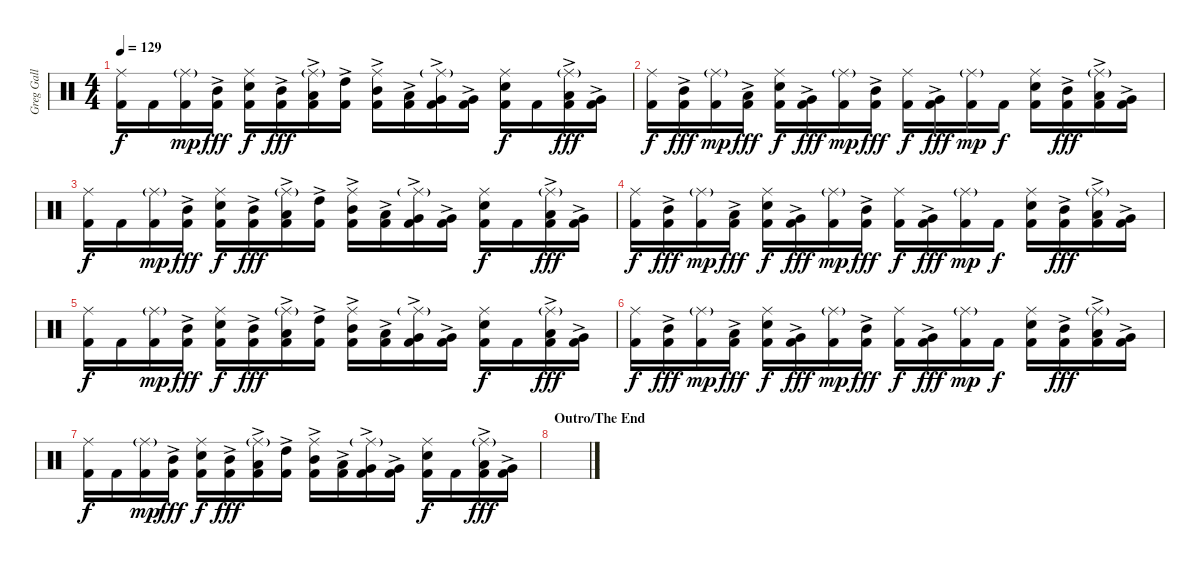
\track ("Greg Gall (Drums)" "Greg Gall ") {instrument percussion}
\staff {score}
\articulation defaults
\ts (4 4)
\tempo 129
\clef neutral
\ks c
("Ride (middle)" "Kick (hit) 2").16{dy f} "Kick (hit) 2".16 ("Ride (middle)"{g} "Kick (hit) 2").16{dy mp} ("Mid Tom (hit)"{ac} "Kick (hit) 2").16{dy fff} ("Ride (middle)" "Electric Snare (hit)" "Kick (hit) 2").16{dy f} ("Mid Tom (hit)"{ac} "Kick (hit) 2").16{dy fff} ("Ride (middle)"{g} "Low Tom (hit)"{ac} "Kick (hit) 2").16 ("High Tom (hit)"{ac} "Kick (hit) 2").16 ("Ride (middle)" "Mid Tom (hit)"{ac} "Kick (hit) 2").16 ("Low Tom (hit)"{ac} "Kick (hit) 2").16 ("Ride (middle)"{g} "Very Low Tom (hit)"{ac} "Kick (hit) 2").16 ("Very Low Tom (hit)"{ac} "Kick (hit) 2").16 ("Ride (middle)" "Electric Snare (hit)" "Kick (hit) 2").16{dy f} "Kick (hit) 2".16 ("Ride (middle)"{g} "Low Tom (hit)"{ac} "Kick (hit) 2").16{dy fff} ("Very Low Tom (hit)"{ac} "Kick (hit) 2").16 |
("Ride (middle)" "Kick (hit) 2").16{dy f} ("Mid Tom (hit)"{ac} "Kick (hit) 2").16{dy fff} ("Ride (middle)"{g} "Kick (hit) 2").16{dy mp} ("Low Tom (hit)"{ac} "Kick (hit) 2").16{dy fff} ("Ride (middle)" "Electric Snare (hit)" "Kick (hit) 2").16{dy f} ("Very Low Tom (hit)"{ac} "Kick (hit) 2").16{dy fff} ("Ride (middle)"{g} "Kick (hit) 2").16{dy mp} ("Mid Tom (hit)"{ac} "Kick (hit) 2").16{dy fff} ("Ride (middle)" "Kick (hit) 2").16{dy f} ("Very Low Tom (hit)"{ac} "Kick (hit) 2").16{dy fff} ("Ride (middle)"{g} "Kick (hit) 2").16{dy mp} "Kick (hit) 2".16{dy f} ("Ride (middle)" "Electric Snare (hit)" "Kick (hit) 2").16 ("Mid Tom (hit)"{ac} "Kick (hit) 2").16{dy fff} ("Ride (middle)"{g} "Low Tom (hit)"{ac} "Kick (hit) 2").16 ("Very Low Tom (hit)"{ac} "Kick (hit) 2").16 |
("Ride (middle)" "Kick (hit) 2").16{dy f} "Kick (hit) 2".16 ("Ride (middle)"{g} "Kick (hit) 2").16{dy mp} ("Mid Tom (hit)"{ac} "Kick (hit) 2").16{dy fff} ("Ride (middle)" "Electric Snare (hit)" "Kick (hit) 2").16{dy f} ("Mid Tom (hit)"{ac} "Kick (hit) 2").16{dy fff} ("Ride (middle)"{g} "Low Tom (hit)"{ac} "Kick (hit) 2").16 ("High Tom (hit)"{ac} "Kick (hit) 2").16 ("Ride (middle)" "Mid Tom (hit)"{ac} "Kick (hit) 2").16 ("Low Tom (hit)"{ac} "Kick (hit) 2").16 ("Ride (middle)"{g} "Very Low Tom (hit)"{ac} "Kick (hit) 2").16 ("Very Low Tom (hit)"{ac} "Kick (hit) 2").16 ("Ride (middle)" "Electric Snare (hit)" "Kick (hit) 2").16{dy f} "Kick (hit) 2".16 ("Ride (middle)"{g} "Low Tom (hit)"{ac} "Kick (hit) 2").16{dy fff} ("Very Low Tom (hit)"{ac} "Kick (hit) 2").16 |
("Ride (middle)" "Kick (hit) 2").16{dy f} ("Mid Tom (hit)"{ac} "Kick (hit) 2").16{dy fff} ("Ride (middle)"{g} "Kick (hit) 2").16{dy mp} ("Low Tom (hit)"{ac} "Kick (hit) 2").16{dy fff} ("Ride (middle)" "Electric Snare (hit)" "Kick (hit) 2").16{dy f} ("Very Low Tom (hit)"{ac} "Kick (hit) 2").16{dy fff} ("Ride (middle)"{g} "Kick (hit) 2").16{dy mp} ("Mid Tom (hit)"{ac} "Kick (hit) 2").16{dy fff} ("Ride (middle)" "Kick (hit) 2").16{dy f} ("Very Low Tom (hit)"{ac} "Kick (hit) 2").16{dy fff} ("Ride (middle)"{g} "Kick (hit) 2").16{dy mp} "Kick (hit) 2".16{dy f} ("Ride (middle)" "Electric Snare (hit)" "Kick (hit) 2").16 ("Mid Tom (hit)"{ac} "Kick (hit) 2").16{dy fff} ("Ride (middle)"{g} "Low Tom (hit)"{ac} "Kick (hit) 2").16 ("Very Low Tom (hit)"{ac} "Kick (hit) 2").16 |
("Ride (middle)" "Kick (hit) 2").16{dy f} "Kick (hit) 2".16 ("Ride (middle)"{g} "Kick (hit) 2").16{dy mp} ("Mid Tom (hit)"{ac} "Kick (hit) 2").16{dy fff} ("Ride (middle)" "Electric Snare (hit)" "Kick (hit) 2").16{dy f} ("Mid Tom (hit)"{ac} "Kick (hit) 2").16{dy fff} ("Ride (middle)"{g} "Low Tom (hit)"{ac} "Kick (hit) 2").16 ("High Tom (hit)"{ac} "Kick (hit) 2").16 ("Ride (middle)" "Mid Tom (hit)"{ac} "Kick (hit) 2").16 ("Low Tom (hit)"{ac} "Kick (hit) 2").16 ("Ride (middle)"{g} "Very Low Tom (hit)"{ac} "Kick (hit) 2").16 ("Very Low Tom (hit)"{ac} "Kick (hit) 2").16 ("Ride (middle)" "Electric Snare (hit)" "Kick (hit) 2").16{dy f} "Kick (hit) 2".16 ("Ride (middle)"{g} "Low Tom (hit)"{ac} "Kick (hit) 2").16{dy fff} ("Very Low Tom (hit)"{ac} "Kick (hit) 2").16 |
("Ride (middle)" "Kick (hit) 2").16{dy f} ("Mid Tom (hit)"{ac} "Kick (hit) 2").16{dy fff} ("Ride (middle)"{g} "Kick (hit) 2").16{dy mp} ("Low Tom (hit)"{ac} "Kick (hit) 2").16{dy fff} ("Ride (middle)" "Electric Snare (hit)" "Kick (hit) 2").16{dy f} ("Very Low Tom (hit)"{ac} "Kick (hit) 2").16{dy fff} ("Ride (middle)"{g} "Kick (hit) 2").16{dy mp} ("Mid Tom (hit)"{ac} "Kick (hit) 2").16{dy fff} ("Ride (middle)" "Kick (hit) 2").16{dy f} ("Very Low Tom (hit)"{ac} "Kick (hit) 2").16{dy fff} ("Ride (middle)"{g} "Kick (hit) 2").16{dy mp} "Kick (hit) 2".16{dy f} ("Ride (middle)" "Electric Snare (hit)" "Kick (hit) 2").16 ("Mid Tom (hit)"{ac} "Kick (hit) 2").16{dy fff} ("Ride (middle)"{g} "Low Tom (hit)"{ac} "Kick (hit) 2").16 ("Very Low Tom (hit)"{ac} "Kick (hit) 2").16 |
("Ride (middle)" "Kick (hit) 2").16{dy f} "Kick (hit) 2".16 ("Ride (middle)"{g} "Kick (hit) 2").16{dy mp} ("Mid Tom (hit)"{ac} "Kick (hit) 2").16{dy fff} ("Ride (middle)" "Electric Snare (hit)" "Kick (hit) 2").16{dy f} ("Mid Tom (hit)"{ac} "Kick (hit) 2").16{dy fff} ("Ride (middle)"{g} "Low Tom (hit)"{ac} "Kick (hit) 2").16 ("High Tom (hit)"{ac} "Kick (hit) 2").16 ("Ride (middle)" "Mid Tom (hit)"{ac} "Kick (hit) 2").16 ("Low Tom (hit)"{ac} "Kick (hit) 2").16 ("Ride (middle)"{g} "Very Low Tom (hit)"{ac} "Kick (hit) 2").16 ("Very Low Tom (hit)"{ac} "Kick (hit) 2").16 ("Ride (middle)" "Electric Snare (hit)" "Kick (hit) 2").16{dy f} "Kick (hit) 2".16 ("Ride (middle)"{g} "Low Tom (hit)"{ac} "Kick (hit) 2").16{dy fff} ("Very Low Tom (hit)"{ac} "Kick (hit) 2").16 |
\section ("" "Outro/The End")
